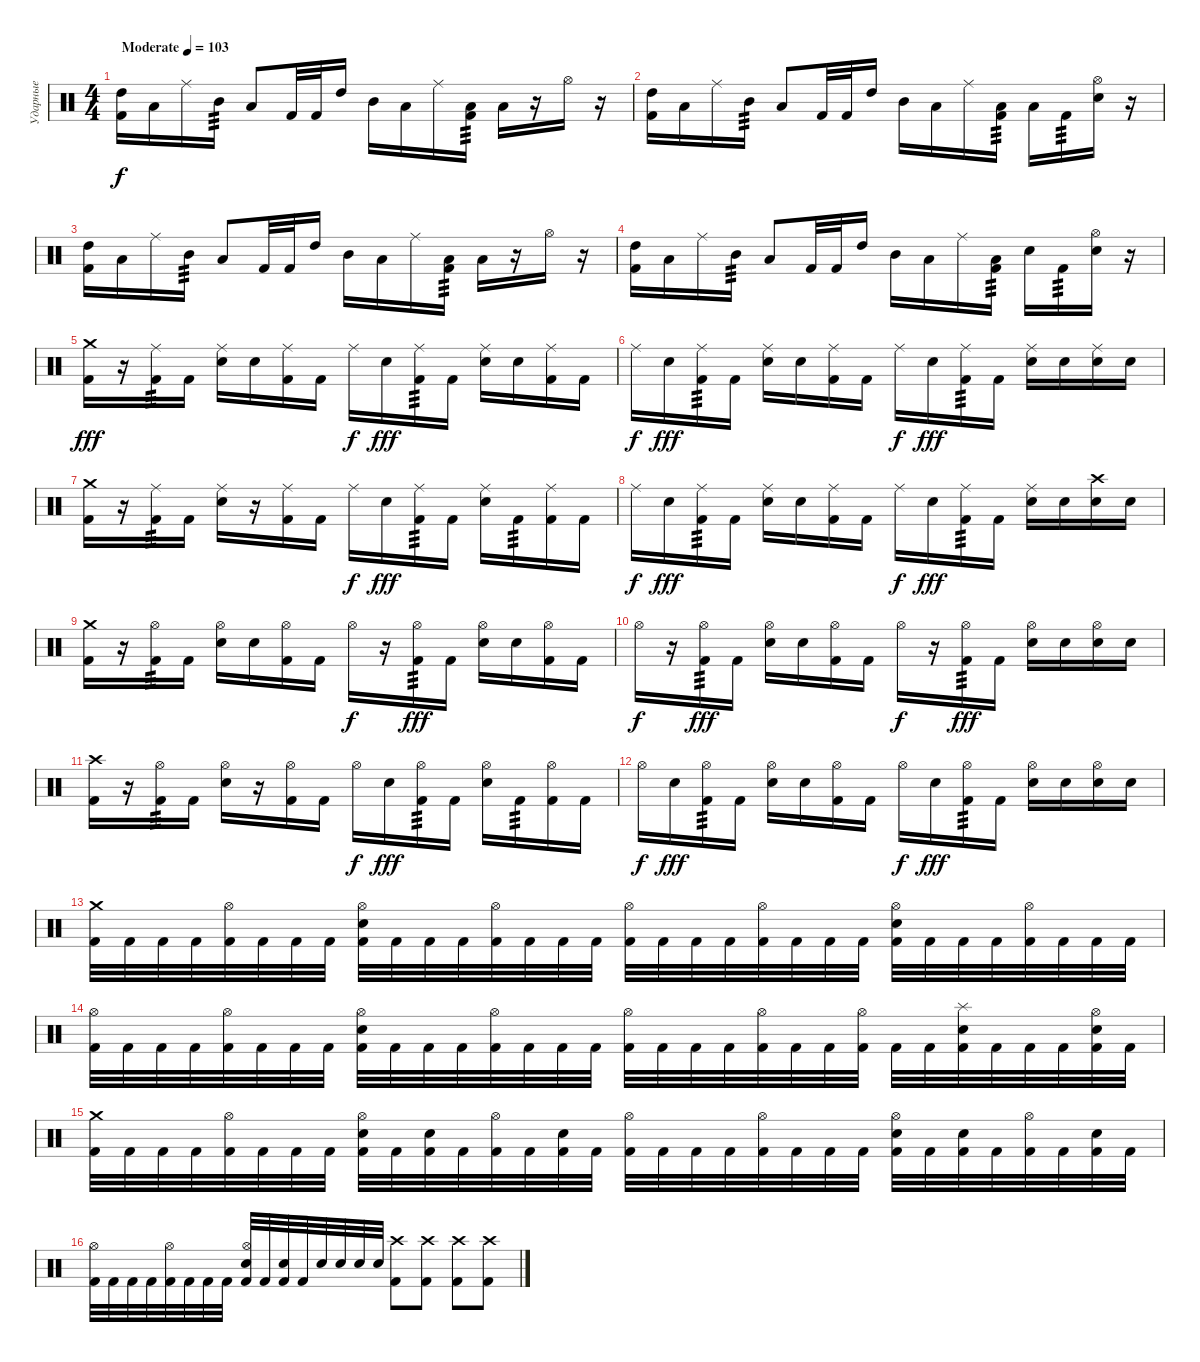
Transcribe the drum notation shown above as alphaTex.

\track ("Ударные" "Ударные") {instrument percussion}
\staff {score}
\articulation defaults
\ts (4 4)
\tempo (103 "Moderate")
\clef neutral
\ks c
("High Tom (hit)" "Kick (hit) 2").16{dy f} "Low Tom (hit)".16 "Ride (middle)".16 "Mid Tom (hit)".16{tp 3} "Low Floor Tom (hit)".8 "Kick (hit) 2".32 "Kick (hit) 2".32 "High Tom (hit)".16 "Mid Tom (hit)".16 "Low Floor Tom (hit)".16 "Ride (middle)".16 ("Low Tom (hit)" "Kick (hit) 2").16{tp 3} "Low Floor Tom (hit)".16 r.16 "Hi-Hat (open)".16 r.16 |
("High Tom (hit)" "Kick (hit) 2").16 "Low Tom (hit)".16 "Ride (middle)".16 "Mid Tom (hit)".16{tp 3} "Low Floor Tom (hit)".8 "Kick (hit) 2".32 "Kick (hit) 2".32 "High Tom (hit)".16 "Mid Tom (hit)".16 "Low Floor Tom (hit)".16 "Ride (middle)".16 ("Low Tom (hit)" "Kick (hit) 2").16{tp 3} "Low Floor Tom (hit)".16 "Kick (hit) 2".16{tp 3} ("Snare (hit) 2" "Hi-Hat (open)").16 r.16 |
("High Tom (hit)" "Kick (hit) 2").16 "Low Tom (hit)".16 "Ride (middle)".16 "Mid Tom (hit)".16{tp 3} "Low Floor Tom (hit)".8 "Kick (hit) 2".32 "Kick (hit) 2".32 "High Tom (hit)".16 "Mid Tom (hit)".16 "Low Floor Tom (hit)".16 "Ride (middle)".16 ("Low Tom (hit)" "Kick (hit) 2").16{tp 3} "Low Floor Tom (hit)".16 r.16 "Hi-Hat (open)".16 r.16 |
("High Tom (hit)" "Kick (hit) 2").16 "Low Tom (hit)".16 "Ride (middle)".16 "Mid Tom (hit)".16{tp 3} "Low Floor Tom (hit)".8 "Kick (hit) 2".32 "Kick (hit) 2".32 "High Tom (hit)".16 "Mid Tom (hit)".16 "Low Floor Tom (hit)".16 "Ride (middle)".16 ("Low Tom (hit)" "Kick (hit) 2").16{tp 3} "Snare (hit) 2".16 "Kick (hit) 2".16{tp 3} ("Snare (hit) 2" "Hi-Hat (open)").16 r.16 |
("Crash medium (hit)" "Kick (hit) 2").16{dy fff} r.16 ("Ride (middle)" "Kick (hit) 2").16{tp 3} "Kick (hit) 2".16 ("Ride (middle)" "Snare (hit) 2").16 "Snare (hit) 2".16 ("Ride (middle)" "Kick (hit) 2").16 "Kick (hit) 2".16 "Ride (middle)".16{dy f} "Snare (hit) 2".16{dy fff} ("Ride (middle)" "Kick (hit) 2").16{tp 3} "Kick (hit) 2".16 ("Ride (middle)" "Snare (hit) 2").16 "Snare (hit) 2".16 ("Ride (middle)" "Kick (hit) 2").16 "Kick (hit) 2".16 |
"Ride (middle)".16{dy f} "Snare (hit) 2".16{dy fff} ("Ride (middle)" "Kick (hit) 2").16{tp 3} "Kick (hit) 2".16 ("Ride (middle)" "Snare (hit) 2").16 "Snare (hit) 2".16 ("Ride (middle)" "Kick (hit) 2").16 "Kick (hit) 2".16 "Ride (middle)".16{dy f} "Snare (hit) 2".16{dy fff} ("Ride (middle)" "Kick (hit) 2").16{tp 3} "Kick (hit) 2".16 ("Ride (middle)" "Snare (hit) 2").16 "Snare (hit) 2".16 ("Ride (middle)" "Snare (hit) 2").16 "Snare (hit) 2".16 |
("Crash medium (hit)" "Kick (hit) 2").16 r.16 ("Ride (middle)" "Kick (hit) 2").16{tp 3} "Kick (hit) 2".16 ("Ride (middle)" "Snare (hit) 2").16 r.16 ("Ride (middle)" "Kick (hit) 2").16 "Kick (hit) 2".16 "Ride (middle)".16{dy f} "Snare (hit) 2".16{dy fff} ("Ride (middle)" "Kick (hit) 2").16{tp 3} "Kick (hit) 2".16 ("Ride (middle)" "Snare (hit) 2").16 "Kick (hit) 2".16{tp 3} ("Ride (middle)" "Kick (hit) 2").16 "Kick (hit) 2".16 |
"Ride (middle)".16{dy f} "Snare (hit) 2".16{dy fff} ("Ride (middle)" "Kick (hit) 2").16{tp 3} "Kick (hit) 2".16 ("Ride (middle)" "Snare (hit) 2").16 "Snare (hit) 2".16 ("Ride (middle)" "Kick (hit) 2").16 "Kick (hit) 2".16 "Ride (middle)".16{dy f} "Snare (hit) 2".16{dy fff} ("Ride (middle)" "Kick (hit) 2").16{tp 3} "Kick (hit) 2".16 ("Ride (middle)" "Snare (hit) 2").16 "Snare (hit) 2".16 ("Crash high (hit)" "Snare (hit) 2").16 "Snare (hit) 2".16 |
("Crash medium (hit)" "Kick (hit) 2").16 r.16 ("Hi-Hat (open)" "Kick (hit) 2").16{tp 3} "Kick (hit) 2".16 ("Hi-Hat (open)" "Snare (hit) 2").16 "Snare (hit) 2".16 ("Hi-Hat (open)" "Kick (hit) 2").16 "Kick (hit) 2".16 "Hi-Hat (open)".16{dy f} r.16 ("Hi-Hat (open)" "Kick (hit) 2").16{tp 3 dy fff} "Kick (hit) 2".16 ("Hi-Hat (open)" "Snare (hit) 2").16 "Snare (hit) 2".16 ("Hi-Hat (open)" "Kick (hit) 2").16 "Kick (hit) 2".16 |
"Hi-Hat (open)".16{dy f} r.16 ("Hi-Hat (open)" "Kick (hit) 2").16{tp 3 dy fff} "Kick (hit) 2".16 ("Hi-Hat (open)" "Snare (hit) 2").16 "Snare (hit) 2".16 ("Hi-Hat (open)" "Kick (hit) 2").16 "Kick (hit) 2".16 "Hi-Hat (open)".16{dy f} r.16 ("Hi-Hat (open)" "Kick (hit) 2").16{tp 3 dy fff} "Kick (hit) 2".16 ("Hi-Hat (open)" "Snare (hit) 2").16 "Snare (hit) 2".16 ("Hi-Hat (open)" "Snare (hit) 2").16 "Snare (hit) 2".16 |
("Crash high (hit)" "Kick (hit) 2").16 r.16 ("Hi-Hat (open)" "Kick (hit) 2").16{tp 3} "Kick (hit) 2".16 ("Hi-Hat (open)" "Snare (hit) 2").16 r.16 ("Hi-Hat (open)" "Kick (hit) 2").16 "Kick (hit) 2".16 "Hi-Hat (open)".16{dy f} "Snare (hit) 2".16{dy fff} ("Hi-Hat (open)" "Kick (hit) 2").16{tp 3} "Kick (hit) 2".16 ("Hi-Hat (open)" "Snare (hit) 2").16 "Kick (hit) 2".16{tp 3} ("Hi-Hat (open)" "Kick (hit) 2").16 "Kick (hit) 2".16 |
"Hi-Hat (open)".16{dy f} "Snare (hit) 2".16{dy fff} ("Hi-Hat (open)" "Kick (hit) 2").16{tp 3} "Kick (hit) 2".16 ("Hi-Hat (open)" "Snare (hit) 2").16 "Snare (hit) 2".16 ("Hi-Hat (open)" "Kick (hit) 2").16 "Kick (hit) 2".16 "Hi-Hat (open)".16{dy f} "Snare (hit) 2".16{dy fff} ("Hi-Hat (open)" "Kick (hit) 2").16{tp 3} "Kick (hit) 2".16 ("Hi-Hat (open)" "Snare (hit) 2").16 "Snare (hit) 2".16 ("Hi-Hat (open)" "Snare (hit) 2").16 "Snare (hit) 2".16 |
("Crash medium (hit)" "Kick (hit) 2").32 "Kick (hit) 2".32 "Kick (hit) 2".32 "Kick (hit) 2".32 ("Hi-Hat (open)" "Kick (hit) 2").32 "Kick (hit) 2".32 "Kick (hit) 2".32 "Kick (hit) 2".32 ("Hi-Hat (open)" "Snare (hit) 2" "Kick (hit) 2").32 "Kick (hit) 2".32 "Kick (hit) 2".32 "Kick (hit) 2".32 ("Hi-Hat (open)" "Kick (hit) 2").32 "Kick (hit) 2".32 "Kick (hit) 2".32 "Kick (hit) 2".32 ("Hi-Hat (open)" "Kick (hit) 2").32 "Kick (hit) 2".32 "Kick (hit) 2".32 "Kick (hit) 2".32 ("Hi-Hat (open)" "Kick (hit) 2").32 "Kick (hit) 2".32 "Kick (hit) 2".32 "Kick (hit) 2".32 ("Hi-Hat (open)" "Snare (hit) 2" "Kick (hit) 2").32 "Kick (hit) 2".32 "Kick (hit) 2".32 "Kick (hit) 2".32 ("Hi-Hat (open)" "Kick (hit) 2").32 "Kick (hit) 2".32 "Kick (hit) 2".32 "Kick (hit) 2".32 |
("Hi-Hat (open)" "Kick (hit) 2").32 "Kick (hit) 2".32 "Kick (hit) 2".32 "Kick (hit) 2".32 ("Hi-Hat (open)" "Kick (hit) 2").32 "Kick (hit) 2".32 "Kick (hit) 2".32 "Kick (hit) 2".32 ("Hi-Hat (open)" "Snare (hit) 2" "Kick (hit) 2").32 "Kick (hit) 2".32 "Kick (hit) 2".32 "Kick (hit) 2".32 ("Hi-Hat (open)" "Kick (hit) 2").32 "Kick (hit) 2".32 "Kick (hit) 2".32 "Kick (hit) 2".32 ("Hi-Hat (open)" "Kick (hit) 2").32 "Kick (hit) 2".32 "Kick (hit) 2".32 "Kick (hit) 2".32 ("Hi-Hat (open)" "Kick (hit) 2").32 "Kick (hit) 2".32 "Kick (hit) 2".32 ("Hi-Hat (open)" "Kick (hit) 2").32 "Kick (hit) 2".32 "Kick (hit) 2".32 ("Splash (hit)" "Snare (hit) 2" "Kick (hit) 2").32 "Kick (hit) 2".32 "Kick (hit) 2".32 "Kick (hit) 2".32 ("Hi-Hat (open)" "Snare (hit) 2" "Kick (hit) 2").32 "Kick (hit) 2".32 |
("Crash medium (hit)" "Kick (hit) 2").32 "Kick (hit) 2".32 "Kick (hit) 2".32 "Kick (hit) 2".32 ("Hi-Hat (open)" "Kick (hit) 2").32 "Kick (hit) 2".32 "Kick (hit) 2".32 "Kick (hit) 2".32 ("Hi-Hat (open)" "Snare (hit) 2" "Kick (hit) 2").32 "Kick (hit) 2".32 ("Snare (hit) 2" "Kick (hit) 2").32 "Kick (hit) 2".32 ("Hi-Hat (open)" "Kick (hit) 2").32 "Kick (hit) 2".32 ("Snare (hit) 2" "Kick (hit) 2").32 "Kick (hit) 2".32 ("Hi-Hat (open)" "Kick (hit) 2").32 "Kick (hit) 2".32 "Kick (hit) 2".32 "Kick (hit) 2".32 ("Hi-Hat (open)" "Kick (hit) 2").32 "Kick (hit) 2".32 "Kick (hit) 2".32 "Kick (hit) 2".32 ("Hi-Hat (open)" "Snare (hit) 2" "Kick (hit) 2").32 "Kick (hit) 2".32 ("Snare (hit) 2" "Kick (hit) 2").32 "Kick (hit) 2".32 ("Hi-Hat (open)" "Kick (hit) 2").32 "Kick (hit) 2".32 ("Snare (hit) 2" "Kick (hit) 2").32 "Kick (hit) 2".32 |
("Hi-Hat (open)" "Kick (hit) 2").32 "Kick (hit) 2".32 "Kick (hit) 2".32 "Kick (hit) 2".32 ("Hi-Hat (open)" "Kick (hit) 2").32 "Kick (hit) 2".32 "Kick (hit) 2".32 "Kick (hit) 2".32 ("Hi-Hat (open)" "Snare (hit) 2" "Kick (hit) 2").32 "Kick (hit) 2".32 ("Snare (hit) 2" "Kick (hit) 2").32 "Kick (hit) 2".32 "Snare (hit) 2".32 "Snare (hit) 2".32 "Snare (hit) 2".32 "Snare (hit) 2".32 ("Crash high (hit)" "Kick (hit) 2").8 ("Crash high (hit)" "Kick (hit) 2").8 ("Crash high (hit)" "Kick (hit) 2").8 ("Crash high (hit)" "Kick (hit) 2").8
